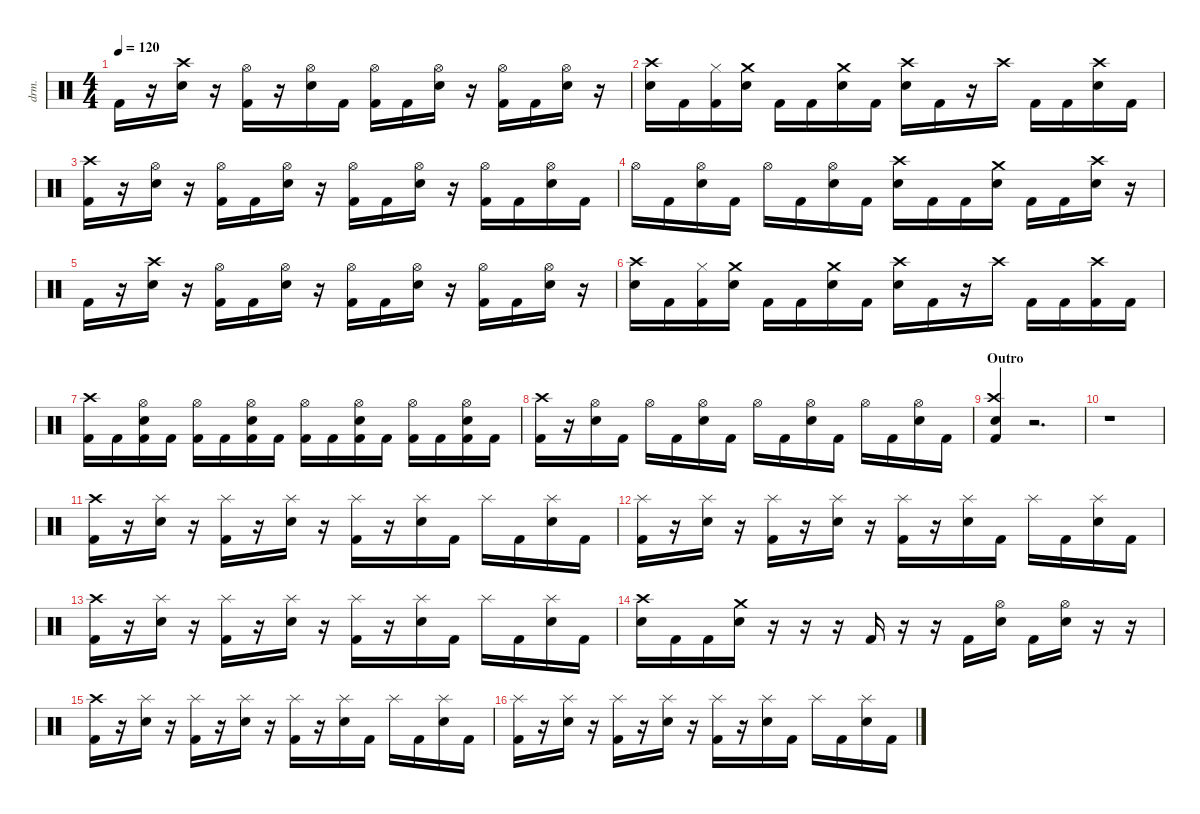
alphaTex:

\defaultSystemsLayout 4
\hideDynamics
\bracketExtendMode nobrackets
\track ("Drums" "drm.") {instrument percussion}
\staff {score}
\articulation defaults
\ts (4 4)
\tempo 120
\clef neutral
\ks c "Kick (hit) 2".16{dy f}
r.16 ("Crash high (hit)" "Snare (hit) 2").16{dy fff} r.16 ("Hi-Hat (open)" "Kick (hit) 2").16 r.16 ("Hi-Hat (open)" "Snare (hit) 2").16 "Kick (hit) 2".16{dy f} ("Hi-Hat (open)" "Kick (hit) 2").16{dy fff} "Kick (hit) 2".16{dy f} ("Hi-Hat (open)" "Snare (hit) 2").16{dy fff} r.16 ("Hi-Hat (open)" "Kick (hit) 2").16 "Kick (hit) 2".16{dy f} ("Hi-Hat (open)" "Snare (hit) 2").16{dy fff} r.16 |
("Crash high (hit)" "Snare (hit) 2").16 "Kick (hit) 2".16{dy f} ("Hi-Hat (closed)" "Kick (hit) 2").16{dy fff} ("Crash medium (hit)" "Snare (hit) 2").16 "Kick (hit) 2".16{dy f} "Kick (hit) 2".16 ("Crash medium (hit)" "Snare (hit) 2").16{dy fff} "Kick (hit) 2".16{dy f} ("Crash high (hit)" "Snare (hit) 2").16{dy fff} "Kick (hit) 2".16{dy f} r.16 "Crash high (hit)".16{dy fff} "Kick (hit) 2".16{dy f} "Kick (hit) 2".16 ("Crash high (hit)" "Snare (hit) 2").16{dy fff} "Kick (hit) 2".16{dy f} |
("Crash high (hit)" "Kick (hit) 2").16{dy fff} r.16 ("Hi-Hat (open)" "Snare (hit) 2").16 r.16 ("Hi-Hat (open)" "Kick (hit) 2").16 "Kick (hit) 2".16{dy f} ("Hi-Hat (open)" "Snare (hit) 2").16{dy fff} r.16 ("Hi-Hat (open)" "Kick (hit) 2").16 "Kick (hit) 2".16{dy f} ("Hi-Hat (open)" "Snare (hit) 2").16{dy fff} r.16 ("Hi-Hat (open)" "Kick (hit) 2").16 "Kick (hit) 2".16{dy f} ("Hi-Hat (open)" "Snare (hit) 2").16{dy fff} "Kick (hit) 2".16{dy f} |
"Hi-Hat (open)".16{dy fff} "Kick (hit) 2".16{dy f} ("Hi-Hat (open)" "Snare (hit) 2").16{dy fff} "Kick (hit) 2".16{dy f} "Hi-Hat (open)".16{dy fff} "Kick (hit) 2".16{dy f} ("Hi-Hat (open)" "Snare (hit) 2").16{dy fff} "Kick (hit) 2".16{dy f} ("Crash high (hit)" "Snare (hit) 2").16{dy fff} "Kick (hit) 2".16{dy f} "Kick (hit) 2".16 ("Crash medium (hit)" "Snare (hit) 2").16{dy fff} "Kick (hit) 2".16{dy f} "Kick (hit) 2".16 ("Crash high (hit)" "Snare (hit) 2").16{dy fff} r.16 |
"Kick (hit) 2".16{dy f} r.16 ("Crash high (hit)" "Snare (hit) 2").16{dy fff} r.16 ("Hi-Hat (open)" "Kick (hit) 2").16 "Kick (hit) 2".16{dy f} ("Hi-Hat (open)" "Snare (hit) 2").16{dy fff} r.16 ("Hi-Hat (open)" "Kick (hit) 2").16 "Kick (hit) 2".16{dy f} ("Hi-Hat (open)" "Snare (hit) 2").16{dy fff} r.16 ("Hi-Hat (open)" "Kick (hit) 2").16 "Kick (hit) 2".16{dy f} ("Hi-Hat (open)" "Snare (hit) 2").16{dy fff} r.16 |
("Crash high (hit)" "Snare (hit) 2").16 "Kick (hit) 2".16{dy f} ("Hi-Hat (closed)" "Kick (hit) 2").16{dy fff} ("Crash medium (hit)" "Snare (hit) 2").16 "Kick (hit) 2".16{dy f} "Kick (hit) 2".16 ("Crash medium (hit)" "Snare (hit) 2").16{dy fff} "Kick (hit) 2".16{dy f} ("Crash high (hit)" "Snare (hit) 2").16{dy fff} "Kick (hit) 2".16{dy f} r.16 "Crash high (hit)".16 "Kick (hit) 2".16 "Kick (hit) 2".16 ("Crash high (hit)" "Kick (hit) 2").16{dy fff} "Kick (hit) 2".16{dy f} |
("Crash high (hit)" "Kick (hit) 2").16{dy fff} "Kick (hit) 2".16{dy f} ("Hi-Hat (open)" "Snare (hit) 2" "Kick (hit) 2").16{dy fff} "Kick (hit) 2".16{dy f} ("Hi-Hat (open)" "Kick (hit) 2").16{dy fff} "Kick (hit) 2".16{dy f} ("Hi-Hat (open)" "Snare (hit) 2" "Kick (hit) 2").16{dy fff} "Kick (hit) 2".16{dy f} ("Hi-Hat (open)" "Kick (hit) 2").16{dy fff} "Kick (hit) 2".16{dy f} ("Hi-Hat (open)" "Snare (hit) 2" "Kick (hit) 2").16{dy fff} "Kick (hit) 2".16{dy f} ("Hi-Hat (open)" "Kick (hit) 2").16{dy fff} "Kick (hit) 2".16{dy f} ("Hi-Hat (open)" "Snare (hit) 2" "Kick (hit) 2").16{dy fff} "Kick (hit) 2".16{dy f} |
("Crash high (hit)" "Kick (hit) 2").16{dy fff} r.16 ("Hi-Hat (open)" "Snare (hit) 2").16 "Kick (hit) 2".16{dy f} "Hi-Hat (open)".16{dy fff} "Kick (hit) 2".16{dy f} ("Hi-Hat (open)" "Snare (hit) 2").16{dy fff} "Kick (hit) 2".16{dy f} "Hi-Hat (open)".16{dy fff} "Kick (hit) 2".16{dy f} ("Hi-Hat (open)" "Snare (hit) 2").16{dy fff} "Kick (hit) 2".16{dy f} "Hi-Hat (open)".16{dy fff} "Kick (hit) 2".16{dy f} ("Hi-Hat (open)" "Snare (hit) 2").16{dy fff} "Kick (hit) 2".16{dy f} |
\section ("" "Outro")
("Crash high (hit)" "Snare (hit) 2" "Kick (hit) 2").4{dy fff} r.2{d} |
r.1 |
("Crash high (hit)" "Kick (hit) 2").16 r.16 ("Splash (hit)" "Snare (hit) 2").16 r.16 ("Splash (hit)" "Kick (hit) 2").16 r.16 ("Splash (hit)" "Snare (hit) 2").16 r.16 ("Splash (hit)" "Kick (hit) 2").16 r.16 ("Splash (hit)" "Snare (hit) 2").16 "Kick (hit) 2".16{dy f} "Splash (hit)".16{dy fff} "Kick (hit) 2".16{dy f} ("Splash (hit)" "Snare (hit) 2").16{dy fff} "Kick (hit) 2".16{dy f} |
("Splash (hit)" "Kick (hit) 2").16{dy fff} r.16 ("Splash (hit)" "Snare (hit) 2").16 r.16 ("Splash (hit)" "Kick (hit) 2").16 r.16 ("Splash (hit)" "Snare (hit) 2").16 r.16 ("Splash (hit)" "Kick (hit) 2").16 r.16 ("Splash (hit)" "Snare (hit) 2").16 "Kick (hit) 2".16{dy f} "Splash (hit)".16{dy fff} "Kick (hit) 2".16{dy f} ("Splash (hit)" "Snare (hit) 2").16{dy fff} "Kick (hit) 2".16{dy f} |
("Crash high (hit)" "Kick (hit) 2").16{dy fff} r.16 ("Splash (hit)" "Snare (hit) 2").16 r.16 ("Splash (hit)" "Kick (hit) 2").16 r.16 ("Splash (hit)" "Snare (hit) 2").16 r.16 ("Splash (hit)" "Kick (hit) 2").16 r.16 ("Splash (hit)" "Snare (hit) 2").16 "Kick (hit) 2".16{dy f} "Splash (hit)".16{dy fff} "Kick (hit) 2".16{dy f} ("Splash (hit)" "Snare (hit) 2").16{dy fff} "Kick (hit) 2".16{dy f} |
("Crash high (hit)" "Snare (hit) 2").16{dy fff} "Kick (hit) 2".16{dy f} "Kick (hit) 2".16 ("Crash medium (hit)" "Snare (hit) 2").16{dy fff} r.16 r.16 r.16 "Kick (hit) 2".16{dy f} r.16 r.16 "Kick (hit) 2".16 ("Hi-Hat (open)" "Snare (hit) 2").16{dy fff} "Kick (hit) 2".16{dy f} ("Hi-Hat (open)" "Snare (hit) 2").16{dy fff} r.16 r.16 |
("Crash high (hit)" "Kick (hit) 2").16 r.16 ("Splash (hit)" "Snare (hit) 2").16 r.16 ("Splash (hit)" "Kick (hit) 2").16 r.16 ("Splash (hit)" "Snare (hit) 2").16 r.16 ("Splash (hit)" "Kick (hit) 2").16 r.16 ("Splash (hit)" "Snare (hit) 2").16 "Kick (hit) 2".16{dy f} "Splash (hit)".16{dy fff} "Kick (hit) 2".16{dy f} ("Splash (hit)" "Snare (hit) 2").16{dy fff} "Kick (hit) 2".16{dy f} |
("Splash (hit)" "Kick (hit) 2").16{dy fff} r.16 ("Splash (hit)" "Snare (hit) 2").16 r.16 ("Splash (hit)" "Kick (hit) 2").16 r.16 ("Splash (hit)" "Snare (hit) 2").16 r.16 ("Splash (hit)" "Kick (hit) 2").16 r.16 ("Splash (hit)" "Snare (hit) 2").16 "Kick (hit) 2".16{dy f} "Splash (hit)".16{dy fff} "Kick (hit) 2".16{dy f} ("Splash (hit)" "Snare (hit) 2").16{dy fff} "Kick (hit) 2".16{dy f}
